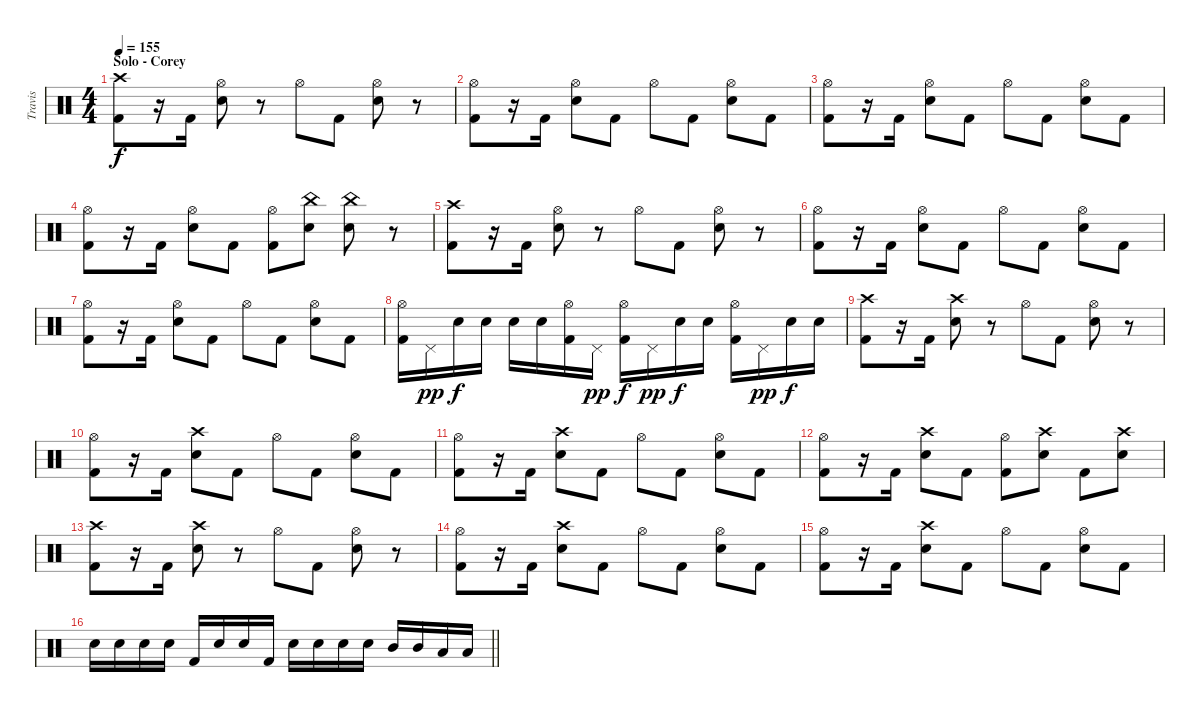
\track ("Travis" "Travis") {instrument percussion}
\staff {score}
\articulation defaults
\ts (4 4)
\section ("" "Solo - Corey")
\tempo 155
\clef neutral
\ks c
("Crash high (hit)" "Kick (hit) 2").8{dy f} r.16 "Kick (hit) 2".16 ("Hi-Hat (open)" "Electric Snare (hit)").8 r.8 "Hi-Hat (open)".8 "Kick (hit) 2".8 ("Hi-Hat (open)" "Electric Snare (hit)").8 r.8 |
("Hi-Hat (open)" "Kick (hit) 2").8 r.16 "Kick (hit) 2".16 ("Hi-Hat (open)" "Electric Snare (hit)").8 "Kick (hit) 2".8 "Hi-Hat (open)".8 "Kick (hit) 2".8 ("Hi-Hat (open)" "Electric Snare (hit)").8 "Kick (hit) 2".8 |
("Hi-Hat (open)" "Kick (hit) 2").8 r.16 "Kick (hit) 2".16 ("Hi-Hat (open)" "Electric Snare (hit)").8 "Kick (hit) 2".8 "Hi-Hat (open)".8 "Kick (hit) 2".8 ("Hi-Hat (open)" "Electric Snare (hit)").8 "Kick (hit) 2".8 |
("Hi-Hat (open)" "Kick (hit) 2").8 r.16 "Kick (hit) 2".16 ("Hi-Hat (open)" "Electric Snare (hit)").8 "Kick (hit) 2".8 ("Hi-Hat (open)" "Kick (hit) 2").8 ("China (hit)" "Electric Snare (hit)").8 ("China (hit)" "Electric Snare (hit)").8 r.8 |
("Crash high (hit)" "Kick (hit) 2").8 r.16 "Kick (hit) 2".16 ("Hi-Hat (open)" "Electric Snare (hit)").8 r.8 "Hi-Hat (open)".8 "Kick (hit) 2".8 ("Hi-Hat (open)" "Electric Snare (hit)").8 r.8 |
("Hi-Hat (open)" "Kick (hit) 2").8 r.16 "Kick (hit) 2".16 ("Hi-Hat (open)" "Electric Snare (hit)").8 "Kick (hit) 2".8 "Hi-Hat (open)".8 "Kick (hit) 2".8 ("Hi-Hat (open)" "Electric Snare (hit)").8 "Kick (hit) 2".8 |
("Hi-Hat (open)" "Kick (hit) 2").8 r.16 "Kick (hit) 2".16 ("Hi-Hat (open)" "Electric Snare (hit)").8 "Kick (hit) 2".8 "Hi-Hat (open)".8 "Kick (hit) 2".8 ("Hi-Hat (open)" "Electric Snare (hit)").8 "Kick (hit) 2".8 |
("Hi-Hat (open)" "Kick (hit) 2").16 "Pedal Hi-Hat (hit)".16{dy pp} "Electric Snare (hit)".16{dy f} "Electric Snare (hit)".16 "Electric Snare (hit)".16 "Electric Snare (hit)".16 ("Hi-Hat (open)" "Kick (hit) 2").16 "Pedal Hi-Hat (hit)".16{dy pp} ("Hi-Hat (open)" "Kick (hit) 2").16{dy f} "Pedal Hi-Hat (hit)".16{dy pp} "Electric Snare (hit)".16{dy f} "Electric Snare (hit)".16 ("Hi-Hat (open)" "Kick (hit) 2").16 "Pedal Hi-Hat (hit)".16{dy pp} "Electric Snare (hit)".16{dy f} "Electric Snare (hit)".16 |
("Crash high (hit)" "Kick (hit) 2").8 r.16 "Kick (hit) 2".16 ("Crash high (hit)" "Electric Snare (hit)").8 r.8 "Hi-Hat (open)".8 "Kick (hit) 2".8 ("Hi-Hat (open)" "Electric Snare (hit)").8 r.8 |
("Hi-Hat (open)" "Kick (hit) 2").8 r.16 "Kick (hit) 2".16 ("Crash high (hit)" "Electric Snare (hit)").8 "Kick (hit) 2".8 "Hi-Hat (open)".8 "Kick (hit) 2".8 ("Hi-Hat (open)" "Electric Snare (hit)").8 "Kick (hit) 2".8 |
("Hi-Hat (open)" "Kick (hit) 2").8 r.16 "Kick (hit) 2".16 ("Crash high (hit)" "Electric Snare (hit)").8 "Kick (hit) 2".8 "Hi-Hat (open)".8 "Kick (hit) 2".8 ("Hi-Hat (open)" "Electric Snare (hit)").8 "Kick (hit) 2".8 |
("Hi-Hat (open)" "Kick (hit) 2").8 r.16 "Kick (hit) 2".16 ("Crash high (hit)" "Electric Snare (hit)").8 "Kick (hit) 2".8 ("Hi-Hat (open)" "Kick (hit) 2").8 ("Crash high (hit)" "Electric Snare (hit)").8 "Kick (hit) 2".8 ("Crash high (hit)" "Electric Snare (hit)").8 |
("Crash high (hit)" "Kick (hit) 2").8 r.16 "Kick (hit) 2".16 ("Crash high (hit)" "Electric Snare (hit)").8 r.8 "Hi-Hat (open)".8 "Kick (hit) 2".8 ("Hi-Hat (open)" "Electric Snare (hit)").8 r.8 |
("Hi-Hat (open)" "Kick (hit) 2").8 r.16 "Kick (hit) 2".16 ("Crash high (hit)" "Electric Snare (hit)").8 "Kick (hit) 2".8 "Hi-Hat (open)".8 "Kick (hit) 2".8 ("Hi-Hat (open)" "Electric Snare (hit)").8 "Kick (hit) 2".8 |
("Hi-Hat (open)" "Kick (hit) 2").8 r.16 "Kick (hit) 2".16 ("Crash high (hit)" "Electric Snare (hit)").8 "Kick (hit) 2".8 "Hi-Hat (open)".8 "Kick (hit) 2".8 ("Hi-Hat (open)" "Electric Snare (hit)").8 "Kick (hit) 2".8 |
\barLineRight lightlight "Electric Snare (hit)".16 "Electric Snare (hit)".16 "Electric Snare (hit)".16 "Electric Snare (hit)".16 "Kick (hit) 2".16 "Electric Snare (hit)".16 "Electric Snare (hit)".16 "Kick (hit) 2".16 "Electric Snare (hit)".16 "Electric Snare (hit)".16 "Electric Snare (hit)".16 "Electric Snare (hit)".16 "Mid Tom (hit)".16 "Mid Tom (hit)".16 "Low Tom (hit)".16 "Low Tom (hit)".16
